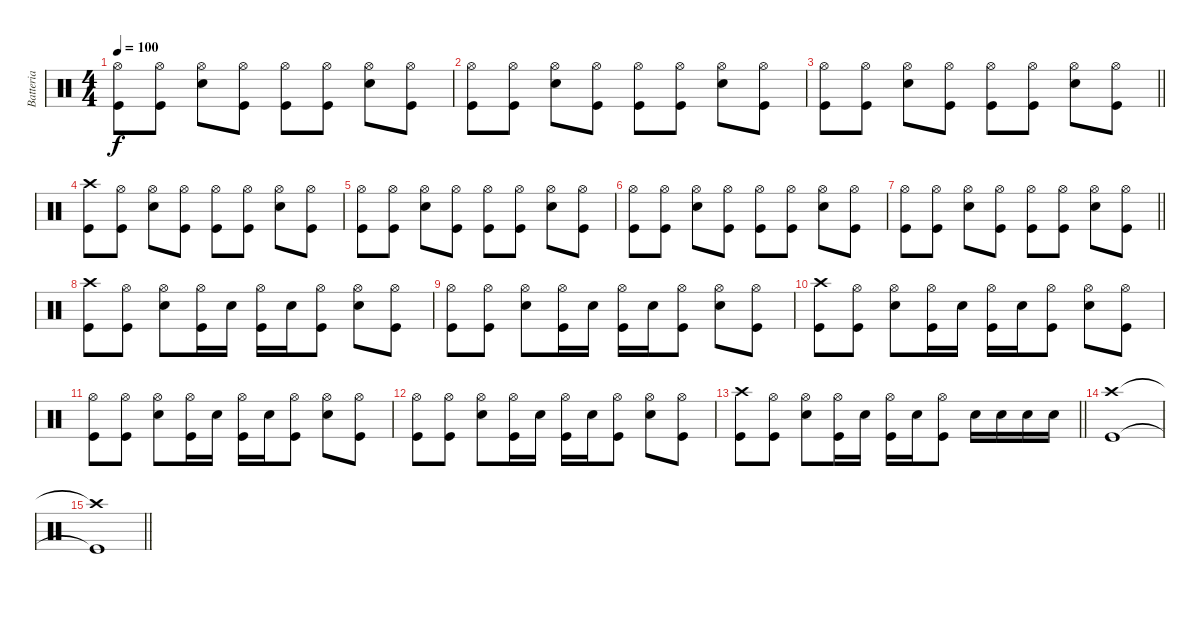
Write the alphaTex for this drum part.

\track ("Batteria" "Batteria") {instrument percussion}
\staff {score}
\articulation defaults
\ts (4 4)
\tempo 100
\clef neutral
\ks c
("Hi-Hat (open)" "Kick (hit)").8{dy f} ("Hi-Hat (open)" "Kick (hit)").8 ("Snare (hit) 2" "Hi-Hat (open)").8 ("Hi-Hat (open)" "Kick (hit)").8 ("Hi-Hat (open)" "Kick (hit)").8 ("Hi-Hat (open)" "Kick (hit)").8 ("Snare (hit) 2" "Hi-Hat (open)").8 ("Hi-Hat (open)" "Kick (hit)").8 |
("Hi-Hat (open)" "Kick (hit)").8 ("Hi-Hat (open)" "Kick (hit)").8 ("Snare (hit) 2" "Hi-Hat (open)").8 ("Hi-Hat (open)" "Kick (hit)").8 ("Hi-Hat (open)" "Kick (hit)").8 ("Hi-Hat (open)" "Kick (hit)").8 ("Snare (hit) 2" "Hi-Hat (open)").8 ("Hi-Hat (open)" "Kick (hit)").8 |
\barLineRight lightlight
("Hi-Hat (open)" "Kick (hit)").8 ("Hi-Hat (open)" "Kick (hit)").8 ("Snare (hit) 2" "Hi-Hat (open)").8 ("Hi-Hat (open)" "Kick (hit)").8 ("Hi-Hat (open)" "Kick (hit)").8 ("Hi-Hat (open)" "Kick (hit)").8 ("Snare (hit) 2" "Hi-Hat (open)").8 ("Hi-Hat (open)" "Kick (hit)").8 |
("Crash high (hit)" "Kick (hit)").8 ("Hi-Hat (open)" "Kick (hit)").8 ("Snare (hit) 2" "Hi-Hat (open)").8 ("Hi-Hat (open)" "Kick (hit)").8 ("Hi-Hat (open)" "Kick (hit)").8 ("Hi-Hat (open)" "Kick (hit)").8 ("Snare (hit) 2" "Hi-Hat (open)").8 ("Hi-Hat (open)" "Kick (hit)").8 |
("Hi-Hat (open)" "Kick (hit)").8 ("Hi-Hat (open)" "Kick (hit)").8 ("Snare (hit) 2" "Hi-Hat (open)").8 ("Hi-Hat (open)" "Kick (hit)").8 ("Hi-Hat (open)" "Kick (hit)").8 ("Hi-Hat (open)" "Kick (hit)").8 ("Snare (hit) 2" "Hi-Hat (open)").8 ("Hi-Hat (open)" "Kick (hit)").8 |
("Hi-Hat (open)" "Kick (hit)").8 ("Hi-Hat (open)" "Kick (hit)").8 ("Snare (hit) 2" "Hi-Hat (open)").8 ("Hi-Hat (open)" "Kick (hit)").8 ("Hi-Hat (open)" "Kick (hit)").8 ("Hi-Hat (open)" "Kick (hit)").8 ("Snare (hit) 2" "Hi-Hat (open)").8 ("Hi-Hat (open)" "Kick (hit)").8 |
\barLineRight lightlight
("Hi-Hat (open)" "Kick (hit)").8 ("Hi-Hat (open)" "Kick (hit)").8 ("Snare (hit) 2" "Hi-Hat (open)").8 ("Hi-Hat (open)" "Kick (hit)").8 ("Hi-Hat (open)" "Kick (hit)").8 ("Hi-Hat (open)" "Kick (hit)").8 ("Snare (hit) 2" "Hi-Hat (open)").8 ("Hi-Hat (open)" "Kick (hit)").8 |
("Crash high (hit)" "Kick (hit)").8 ("Hi-Hat (open)" "Kick (hit)").8 ("Snare (hit) 2" "Hi-Hat (open)").8 ("Hi-Hat (open)" "Kick (hit)").16 "Snare (hit) 2".16 ("Kick (hit)" "Hi-Hat (open)").16 "Snare (hit) 2".16 ("Kick (hit)" "Hi-Hat (open)").8 ("Hi-Hat (open)" "Snare (hit) 2").8 ("Kick (hit)" "Hi-Hat (open)").8 |
("Hi-Hat (open)" "Kick (hit)").8 ("Hi-Hat (open)" "Kick (hit)").8 ("Snare (hit) 2" "Hi-Hat (open)").8 ("Hi-Hat (open)" "Kick (hit)").16 "Snare (hit) 2".16 ("Kick (hit)" "Hi-Hat (open)").16 "Snare (hit) 2".16 ("Kick (hit)" "Hi-Hat (open)").8 ("Hi-Hat (open)" "Snare (hit) 2").8 ("Kick (hit)" "Hi-Hat (open)").8 |
("Crash high (hit)" "Kick (hit)").8 ("Hi-Hat (open)" "Kick (hit)").8 ("Snare (hit) 2" "Hi-Hat (open)").8 ("Hi-Hat (open)" "Kick (hit)").16 "Snare (hit) 2".16 ("Kick (hit)" "Hi-Hat (open)").16 "Snare (hit) 2".16 ("Kick (hit)" "Hi-Hat (open)").8 ("Hi-Hat (open)" "Snare (hit) 2").8 ("Kick (hit)" "Hi-Hat (open)").8 |
("Hi-Hat (open)" "Kick (hit)").8 ("Hi-Hat (open)" "Kick (hit)").8 ("Snare (hit) 2" "Hi-Hat (open)").8 ("Hi-Hat (open)" "Kick (hit)").16 "Snare (hit) 2".16 ("Kick (hit)" "Hi-Hat (open)").16 "Snare (hit) 2".16 ("Kick (hit)" "Hi-Hat (open)").8 ("Hi-Hat (open)" "Snare (hit) 2").8 ("Kick (hit)" "Hi-Hat (open)").8 |
("Hi-Hat (open)" "Kick (hit)").8 ("Hi-Hat (open)" "Kick (hit)").8 ("Snare (hit) 2" "Hi-Hat (open)").8 ("Hi-Hat (open)" "Kick (hit)").16 "Snare (hit) 2".16 ("Kick (hit)" "Hi-Hat (open)").16 "Snare (hit) 2".16 ("Kick (hit)" "Hi-Hat (open)").8 ("Hi-Hat (open)" "Snare (hit) 2").8 ("Kick (hit)" "Hi-Hat (open)").8 |
\barLineRight lightlight
("Crash high (hit)" "Kick (hit)").8 ("Hi-Hat (open)" "Kick (hit)").8 ("Snare (hit) 2" "Hi-Hat (open)").8 ("Hi-Hat (open)" "Kick (hit)").16 "Snare (hit) 2".16 ("Kick (hit)" "Hi-Hat (open)").16 "Snare (hit) 2".16 ("Kick (hit)" "Hi-Hat (open)").8 "Snare (hit) 2".16 "Snare (hit) 2".16 "Snare (hit) 2".16 "Snare (hit) 2".16 |
("Crash high (hit)" "Kick (hit)").1 |
\barLineRight lightlight
("Crash high (hit)"{t} "Kick (hit)"{t}).1
